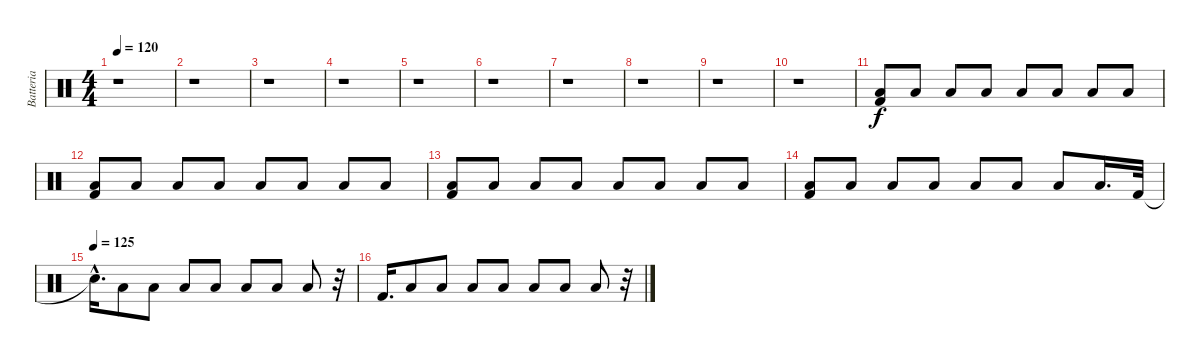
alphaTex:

\track ("Batteria" "Batteria") {instrument percussion}
\staff {score}
\articulation defaults
\ts (4 4)
\tempo 120
\clef neutral
\ks c
r.1{dy f} |
r.1 |
r.1 |
r.1 |
r.1 |
r.1 |
r.1 |
r.1 |
r.1 |
r.1 |
("Low Floor Tom (hit)" "Kick (hit) 2").8 "Low Floor Tom (hit)".8{volume 10} "Low Floor Tom (hit)".8{volume 11} "Low Floor Tom (hit)".8{volume 11} "Low Floor Tom (hit)".8{volume 11} "Low Floor Tom (hit)".8{volume 11} "Low Floor Tom (hit)".8{volume 11} "Low Floor Tom (hit)".8{volume 12} |
("Low Floor Tom (hit)" "Kick (hit) 2").8{volume 12} "Low Floor Tom (hit)".8{volume 12} "Low Floor Tom (hit)".8{volume 12} "Low Floor Tom (hit)".8{volume 12} "Low Floor Tom (hit)".8{volume 12} "Low Floor Tom (hit)".8{volume 12} "Low Floor Tom (hit)".8{volume 13} "Low Floor Tom (hit)".8{volume 13} |
("Low Floor Tom (hit)" "Kick (hit) 2").8{volume 13} "Low Floor Tom (hit)".8{volume 13} "Low Floor Tom (hit)".8{volume 13} "Low Floor Tom (hit)".8{volume 14} "Low Floor Tom (hit)".8{volume 14} "Low Floor Tom (hit)".8{volume 14} "Low Floor Tom (hit)".8{volume 14} "Low Floor Tom (hit)".8{volume 14} |
("Low Floor Tom (hit)" "Kick (hit) 2").8{volume 14} "Low Floor Tom (hit)".8{volume 15} "Low Floor Tom (hit)".8{volume 15} "Low Floor Tom (hit)".8{volume 15} "Low Floor Tom (hit)".8{volume 15} "Low Floor Tom (hit)".8{volume 15} "Low Floor Tom (hit)".8{volume 16} "Low Floor Tom (hit)".16{d volume 16} "Kick (hit) 2".32{volume 16} |
\tempo (125)
"Snare (hit)"{hac t}.16{d} "Low Floor Tom (hit)".8{volume 16} "Low Floor Tom (hit)".8 "Low Floor Tom (hit)".8 "Low Floor Tom (hit)".8 "Low Floor Tom (hit)".8 "Low Floor Tom (hit)".8 "Low Floor Tom (hit)".8 r.32 |
"Kick (hit) 2".16{d} "Low Floor Tom (hit)".8 "Low Floor Tom (hit)".8 "Low Floor Tom (hit)".8 "Low Floor Tom (hit)".8 "Low Floor Tom (hit)".8 "Low Floor Tom (hit)".8 "Low Floor Tom (hit)".8 r.32
